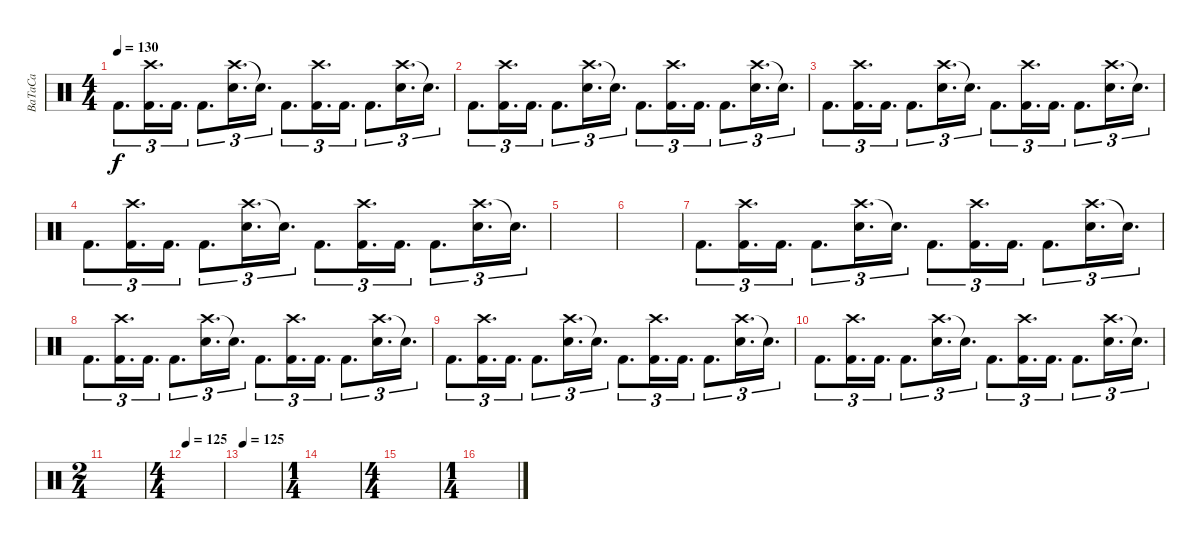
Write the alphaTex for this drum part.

\track ("BaTaCa" "BaTaCa") {instrument percussion}
\staff {score}
\articulation defaults
\ts (4 4)
\tempo 130
\clef neutral
\ks c "Kick (hit) 2".8{d tu (3 2) dy f}
("Crash high (hit)" "Kick (hit) 2").16{d tu (3 2)} "Kick (hit) 2".16{d tu (3 2)} "Kick (hit) 2".8{d tu (3 2)} ("Crash high (hit)" "Electric Snare (hit)").16{d tu (3 2)} "Electric Snare (hit)"{t}.16{d tu (3 2)} "Kick (hit) 2".8{d tu (3 2)} ("Crash high (hit)" "Kick (hit) 2").16{d tu (3 2)} "Kick (hit) 2".16{d tu (3 2)} "Kick (hit) 2".8{d tu (3 2)} ("Crash high (hit)" "Electric Snare (hit)").16{d tu (3 2)} "Electric Snare (hit)"{t}.16{d tu (3 2)} |
"Kick (hit) 2".8{d tu (3 2)} ("Crash high (hit)" "Kick (hit) 2").16{d tu (3 2)} "Kick (hit) 2".16{d tu (3 2)} "Kick (hit) 2".8{d tu (3 2)} ("Crash high (hit)" "Electric Snare (hit)").16{d tu (3 2)} "Electric Snare (hit)"{t}.16{d tu (3 2)} "Kick (hit) 2".8{d tu (3 2)} ("Crash high (hit)" "Kick (hit) 2").16{d tu (3 2)} "Kick (hit) 2".16{d tu (3 2)} "Kick (hit) 2".8{d tu (3 2)} ("Crash high (hit)" "Electric Snare (hit)").16{d tu (3 2)} "Electric Snare (hit)"{t}.16{d tu (3 2)} |
"Kick (hit) 2".8{d tu (3 2)} ("Crash high (hit)" "Kick (hit) 2").16{d tu (3 2)} "Kick (hit) 2".16{d tu (3 2)} "Kick (hit) 2".8{d tu (3 2)} ("Crash high (hit)" "Electric Snare (hit)").16{d tu (3 2)} "Electric Snare (hit)"{t}.16{d tu (3 2)} "Kick (hit) 2".8{d tu (3 2)} ("Crash high (hit)" "Kick (hit) 2").16{d tu (3 2)} "Kick (hit) 2".16{d tu (3 2)} "Kick (hit) 2".8{d tu (3 2)} ("Crash high (hit)" "Electric Snare (hit)").16{d tu (3 2)} "Electric Snare (hit)"{t}.16{d tu (3 2)} |
"Kick (hit) 2".8{d tu (3 2)} ("Crash high (hit)" "Kick (hit) 2").16{d tu (3 2)} "Kick (hit) 2".16{d tu (3 2)} "Kick (hit) 2".8{d tu (3 2)} ("Crash high (hit)" "Electric Snare (hit)").16{d tu (3 2)} "Electric Snare (hit)"{t}.16{d tu (3 2)} "Kick (hit) 2".8{d tu (3 2)} ("Crash high (hit)" "Kick (hit) 2").16{d tu (3 2)} "Kick (hit) 2".16{d tu (3 2)} "Kick (hit) 2".8{d tu (3 2)} ("Crash high (hit)" "Electric Snare (hit)").16{d tu (3 2)} "Electric Snare (hit)"{t}.16{d tu (3 2)} |
|
|
"Kick (hit) 2".8{d tu (3 2)} ("Crash high (hit)" "Kick (hit) 2").16{d tu (3 2)} "Kick (hit) 2".16{d tu (3 2)} "Kick (hit) 2".8{d tu (3 2)} ("Crash high (hit)" "Electric Snare (hit)").16{d tu (3 2)} "Electric Snare (hit)"{t}.16{d tu (3 2)} "Kick (hit) 2".8{d tu (3 2)} ("Crash high (hit)" "Kick (hit) 2").16{d tu (3 2)} "Kick (hit) 2".16{d tu (3 2)} "Kick (hit) 2".8{d tu (3 2)} ("Crash high (hit)" "Electric Snare (hit)").16{d tu (3 2)} "Electric Snare (hit)"{t}.16{d tu (3 2)} |
"Kick (hit) 2".8{d tu (3 2)} ("Crash high (hit)" "Kick (hit) 2").16{d tu (3 2)} "Kick (hit) 2".16{d tu (3 2)} "Kick (hit) 2".8{d tu (3 2)} ("Crash high (hit)" "Electric Snare (hit)").16{d tu (3 2)} "Electric Snare (hit)"{t}.16{d tu (3 2)} "Kick (hit) 2".8{d tu (3 2)} ("Crash high (hit)" "Kick (hit) 2").16{d tu (3 2)} "Kick (hit) 2".16{d tu (3 2)} "Kick (hit) 2".8{d tu (3 2)} ("Crash high (hit)" "Electric Snare (hit)").16{d tu (3 2)} "Electric Snare (hit)"{t}.16{d tu (3 2)} |
"Kick (hit) 2".8{d tu (3 2)} ("Crash high (hit)" "Kick (hit) 2").16{d tu (3 2)} "Kick (hit) 2".16{d tu (3 2)} "Kick (hit) 2".8{d tu (3 2)} ("Crash high (hit)" "Electric Snare (hit)").16{d tu (3 2)} "Electric Snare (hit)"{t}.16{d tu (3 2)} "Kick (hit) 2".8{d tu (3 2)} ("Crash high (hit)" "Kick (hit) 2").16{d tu (3 2)} "Kick (hit) 2".16{d tu (3 2)} "Kick (hit) 2".8{d tu (3 2)} ("Crash high (hit)" "Electric Snare (hit)").16{d tu (3 2)} "Electric Snare (hit)"{t}.16{d tu (3 2)} |
"Kick (hit) 2".8{d tu (3 2)} ("Crash high (hit)" "Kick (hit) 2").16{d tu (3 2)} "Kick (hit) 2".16{d tu (3 2)} "Kick (hit) 2".8{d tu (3 2)} ("Crash high (hit)" "Electric Snare (hit)").16{d tu (3 2)} "Electric Snare (hit)"{t}.16{d tu (3 2)} "Kick (hit) 2".8{d tu (3 2)} ("Crash high (hit)" "Kick (hit) 2").16{d tu (3 2)} "Kick (hit) 2".16{d tu (3 2)} "Kick (hit) 2".8{d tu (3 2)} ("Crash high (hit)" "Electric Snare (hit)").16{d tu (3 2)} "Electric Snare (hit)"{t}.16{d tu (3 2)} |
\ts (2 4)
|
\ts (4 4)
\tempo 125
|
\tempo 125
|
\ts (1 4)
|
\ts (4 4)
|
\ts (1 4)
